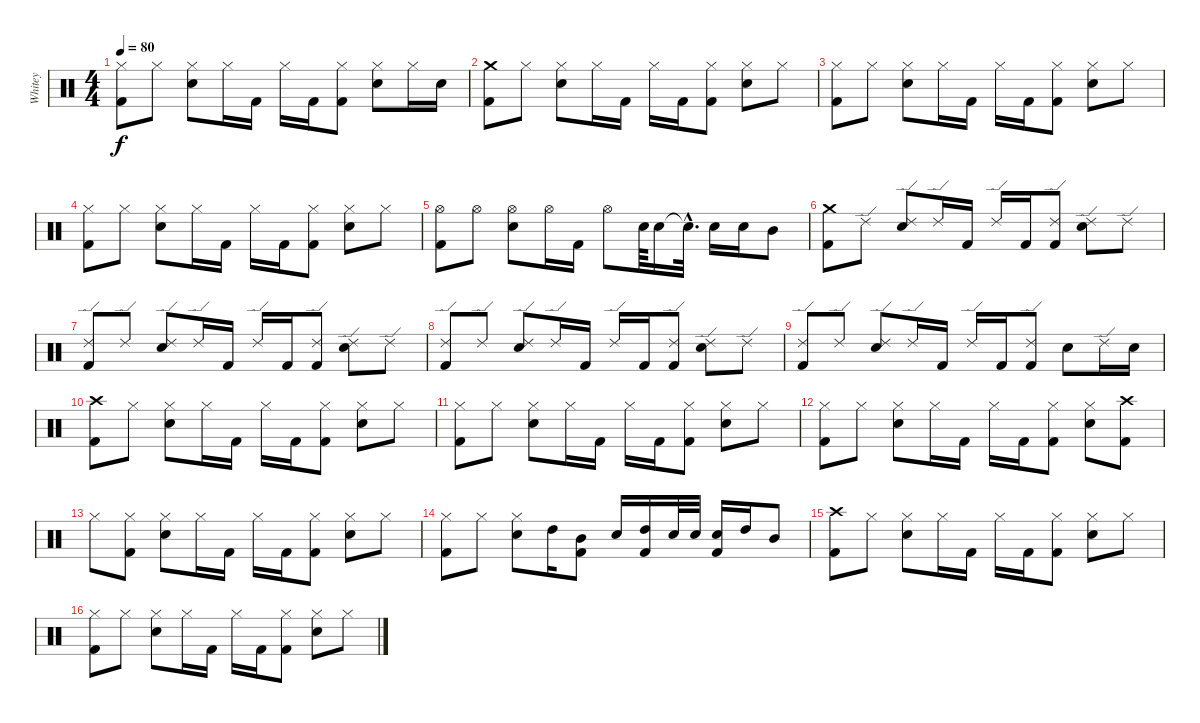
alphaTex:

\track ("Whitey" "Whitey") {instrument percussion}
\staff {score}
\articulation defaults
\ts (4 4)
\tempo 80
\clef neutral
\ks c
("Hi-Hat (closed)" "Kick (hit) 2").8{dy f} "Hi-Hat (closed)".8 ("Hi-Hat (closed)" "Snare (hit) 2").8 "Hi-Hat (closed)".16 "Kick (hit) 2".16 "Hi-Hat (closed)".16 "Kick (hit) 2".16 ("Hi-Hat (closed)" "Kick (hit) 2").8 ("Hi-Hat (closed)" "Snare (hit) 2").8 "Hi-Hat (closed)".16 "Snare (hit) 2".16 |
("Crash medium (hit)" "Kick (hit) 2").8 "Hi-Hat (closed)".8 ("Hi-Hat (closed)" "Snare (hit) 2").8 "Hi-Hat (closed)".16 "Kick (hit) 2".16 "Hi-Hat (closed)".16 "Kick (hit) 2".16 ("Hi-Hat (closed)" "Kick (hit) 2").8 ("Hi-Hat (closed)" "Snare (hit) 2").8 "Hi-Hat (closed)".8 |
("Hi-Hat (closed)" "Kick (hit) 2").8 "Hi-Hat (closed)".8 ("Hi-Hat (closed)" "Snare (hit) 2").8 "Hi-Hat (closed)".16 "Kick (hit) 2".16 "Hi-Hat (closed)".16 "Kick (hit) 2".16 ("Hi-Hat (closed)" "Kick (hit) 2").8 ("Hi-Hat (closed)" "Snare (hit) 2").8 "Hi-Hat (closed)".8 |
("Hi-Hat (closed)" "Kick (hit) 2").8 "Hi-Hat (closed)".8 ("Hi-Hat (closed)" "Snare (hit) 2").8 "Hi-Hat (closed)".16 "Kick (hit) 2".16 "Hi-Hat (closed)".16 "Kick (hit) 2".16 ("Hi-Hat (closed)" "Kick (hit) 2").8 ("Hi-Hat (closed)" "Snare (hit) 2").8 "Hi-Hat (closed)".8 |
("Hi-Hat (open)" "Kick (hit) 2").8 "Hi-Hat (open)".8 ("Hi-Hat (open)" "Snare (hit) 2").8 "Hi-Hat (open)".16 "Kick (hit) 2".16 "Hi-Hat (open)".8 "Snare (hit) 2".64 "Snare (hit) 2".16 "Electric Snare (hit)"{hac t}.32{d} "Snare (hit) 2".16 "Snare (hit) 2".16 "Mid Tom (hit)".8 |
("Crash medium (hit)" "Kick (hit) 2").8 "Ride (edge) 2".8 ("Ride (edge) 2" "Snare (hit) 2").8 "Ride (edge) 2".16 "Kick (hit) 2".16 "Ride (edge) 2".16 "Kick (hit) 2".16 ("Ride (edge) 2" "Kick (hit) 2").8 ("Ride (edge) 2" "Snare (hit) 2").8 "Ride (edge) 2".8 |
("Ride (edge) 2" "Kick (hit) 2").8 "Ride (edge) 2".8 ("Ride (edge) 2" "Snare (hit) 2").8 "Ride (edge) 2".16 "Kick (hit) 2".16 "Ride (edge) 2".16 "Kick (hit) 2".16 ("Ride (edge) 2" "Kick (hit) 2").8 ("Ride (edge) 2" "Snare (hit) 2").8 "Ride (edge) 2".8 |
("Ride (edge) 2" "Kick (hit) 2").8 "Ride (edge) 2".8 ("Ride (edge) 2" "Snare (hit) 2").8 "Ride (edge) 2".16 "Kick (hit) 2".16 "Ride (edge) 2".16 "Kick (hit) 2".16 ("Ride (edge) 2" "Kick (hit) 2").8 ("Ride (edge) 2" "Snare (hit) 2").8 "Ride (edge) 2".8 |
("Ride (edge) 2" "Kick (hit) 2").8 "Ride (edge) 2".8 ("Ride (edge) 2" "Snare (hit) 2").8 "Ride (edge) 2".16 "Kick (hit) 2".16 "Ride (edge) 2".16 "Kick (hit) 2".16 ("Ride (edge) 2" "Kick (hit) 2").8 "Snare (hit) 2".8 "Ride (edge) 2".16 "Snare (hit) 2".16 |
("Crash high (hit)" "Kick (hit) 2").8 "Hi-Hat (closed)".8 ("Hi-Hat (closed)" "Snare (hit) 2").8 "Hi-Hat (closed)".16 "Kick (hit) 2".16 "Hi-Hat (closed)".16 "Kick (hit) 2".16 ("Hi-Hat (closed)" "Kick (hit) 2").8 ("Hi-Hat (closed)" "Snare (hit) 2").8 "Hi-Hat (closed)".8 |
("Hi-Hat (closed)" "Kick (hit) 2").8 "Hi-Hat (closed)".8 ("Hi-Hat (closed)" "Snare (hit) 2").8 "Hi-Hat (closed)".16 "Kick (hit) 2".16 "Hi-Hat (closed)".16 "Kick (hit) 2".16 ("Hi-Hat (closed)" "Kick (hit) 2").8 ("Hi-Hat (closed)" "Snare (hit) 2").8 "Hi-Hat (closed)".8 |
("Hi-Hat (closed)" "Kick (hit) 2").8 "Hi-Hat (closed)".8 ("Hi-Hat (closed)" "Snare (hit) 2").8 "Hi-Hat (closed)".16 "Kick (hit) 2".16 "Hi-Hat (closed)".16 "Kick (hit) 2".16 ("Hi-Hat (closed)" "Kick (hit) 2").8 ("Hi-Hat (closed)" "Snare (hit) 2").8 ("Crash high (hit)" "Kick (hit) 2").8 |
"Hi-Hat (closed)".8 ("Hi-Hat (closed)" "Kick (hit) 2").8 ("Hi-Hat (closed)" "Snare (hit) 2").8 "Hi-Hat (closed)".16 "Kick (hit) 2".16 "Hi-Hat (closed)".16 "Kick (hit) 2".16 ("Hi-Hat (closed)" "Kick (hit) 2").8 ("Hi-Hat (closed)" "Snare (hit) 2").8 "Hi-Hat (closed)".8 |
("Hi-Hat (closed)" "Kick (hit) 2").8 "Hi-Hat (closed)".8 ("Hi-Hat (closed)" "Snare (hit) 2").8 "High Tom (hit)".16 ("Mid Tom (hit)" "Kick (hit) 2").8 "Snare (hit) 2".16 ("High Tom (hit)" "Kick (hit) 2").16 "Snare (hit) 2".32 "Snare (hit) 2".32 ("Snare (hit) 2" "Kick (hit) 2").16 "High Tom (hit)".16 "Mid Tom (hit)".8 |
("Crash high (hit)" "Kick (hit) 2").8 "Hi-Hat (closed)".8 ("Hi-Hat (closed)" "Snare (hit) 2").8 "Hi-Hat (closed)".16 "Kick (hit) 2".16 "Hi-Hat (closed)".16 "Kick (hit) 2".16 ("Hi-Hat (closed)" "Kick (hit) 2").8 ("Hi-Hat (closed)" "Snare (hit) 2").8 "Hi-Hat (closed)".8 |
("Hi-Hat (closed)" "Kick (hit) 2").8 "Hi-Hat (closed)".8 ("Hi-Hat (closed)" "Snare (hit) 2").8 "Hi-Hat (closed)".16 "Kick (hit) 2".16 "Hi-Hat (closed)".16 "Kick (hit) 2".16 ("Hi-Hat (closed)" "Kick (hit) 2").8 ("Hi-Hat (closed)" "Snare (hit) 2").8 "Hi-Hat (closed)".8
